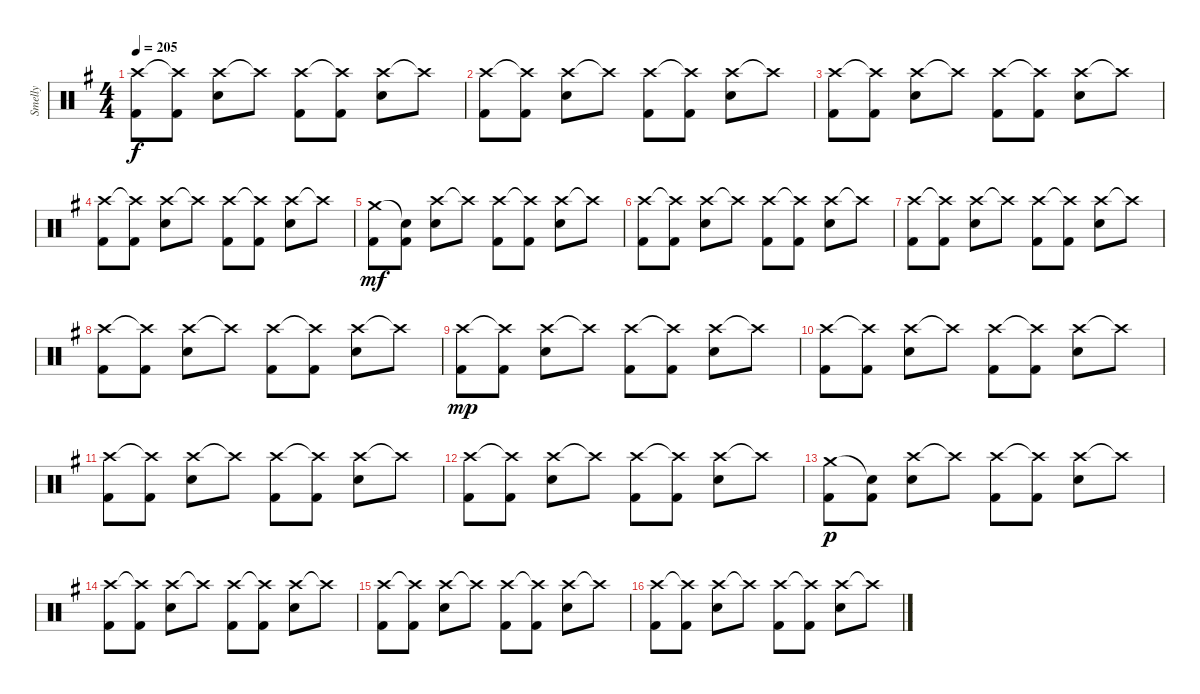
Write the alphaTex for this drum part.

\track ("Smelly" "Smelly") {instrument percussion}
\staff {score}
\articulation defaults
\ts (4 4)
\tempo 205
\clef neutral
\ks eminor
("Crash high (hit)" "Kick (hit) 2").8{dy f} ("Crash high (hit)"{t} "Kick (hit) 2").8 ("Crash high (hit)" "Electric Snare (hit)").8 "Crash high (hit)"{t}.8 ("Crash high (hit)" "Kick (hit) 2").8 ("Crash high (hit)"{t} "Kick (hit) 2").8 ("Crash high (hit)" "Electric Snare (hit)").8 "Crash high (hit)"{t}.8 |
("Crash high (hit)" "Kick (hit) 2").8 ("Crash high (hit)"{t} "Kick (hit) 2").8 ("Crash high (hit)" "Electric Snare (hit)").8 "Crash high (hit)"{t}.8 ("Crash high (hit)" "Kick (hit) 2").8 ("Crash high (hit)"{t} "Kick (hit) 2").8 ("Crash high (hit)" "Electric Snare (hit)").8 "Crash high (hit)"{t}.8 |
("Crash high (hit)" "Kick (hit) 2").8 ("Crash high (hit)"{t} "Kick (hit) 2").8 ("Crash high (hit)" "Electric Snare (hit)").8 "Crash high (hit)"{t}.8 ("Crash high (hit)" "Kick (hit) 2").8 ("Crash high (hit)"{t} "Kick (hit) 2").8 ("Crash high (hit)" "Electric Snare (hit)").8 "Crash high (hit)"{t}.8 |
("Crash high (hit)" "Kick (hit) 2").8 ("Crash high (hit)"{t} "Kick (hit) 2").8 ("Crash high (hit)" "Electric Snare (hit)").8 "Crash high (hit)"{t}.8 ("Crash high (hit)" "Kick (hit) 2").8 ("Crash high (hit)"{t} "Kick (hit) 2").8 ("Crash high (hit)" "Electric Snare (hit)").8 "Crash high (hit)"{t}.8 |
("Crash medium (hit)" "Kick (hit) 2").8{dy mf} ("Snare (hit)"{t} "Kick (hit) 2").8 ("Crash high (hit)" "Electric Snare (hit)").8 "Crash high (hit)"{t}.8 ("Crash high (hit)" "Kick (hit) 2").8 ("Crash high (hit)"{t} "Kick (hit) 2").8 ("Crash high (hit)" "Electric Snare (hit)").8 "Crash high (hit)"{t}.8 |
("Crash high (hit)" "Kick (hit) 2").8 ("Crash high (hit)"{t} "Kick (hit) 2").8 ("Crash high (hit)" "Electric Snare (hit)").8 "Crash high (hit)"{t}.8 ("Crash high (hit)" "Kick (hit) 2").8 ("Crash high (hit)"{t} "Kick (hit) 2").8 ("Crash high (hit)" "Electric Snare (hit)").8 "Crash high (hit)"{t}.8 |
("Crash high (hit)" "Kick (hit) 2").8 ("Crash high (hit)"{t} "Kick (hit) 2").8 ("Crash high (hit)" "Electric Snare (hit)").8 "Crash high (hit)"{t}.8 ("Crash high (hit)" "Kick (hit) 2").8 ("Crash high (hit)"{t} "Kick (hit) 2").8 ("Crash high (hit)" "Electric Snare (hit)").8 "Crash high (hit)"{t}.8 |
("Crash high (hit)" "Kick (hit) 2").8 ("Crash high (hit)"{t} "Kick (hit) 2").8 ("Crash high (hit)" "Electric Snare (hit)").8 "Crash high (hit)"{t}.8 ("Crash high (hit)" "Kick (hit) 2").8 ("Crash high (hit)"{t} "Kick (hit) 2").8 ("Crash high (hit)" "Electric Snare (hit)").8 "Crash high (hit)"{t}.8 |
("Crash high (hit)" "Kick (hit) 2").8{dy mp} ("Crash high (hit)"{t} "Kick (hit) 2").8 ("Crash high (hit)" "Electric Snare (hit)").8 "Crash high (hit)"{t}.8 ("Crash high (hit)" "Kick (hit) 2").8 ("Crash high (hit)"{t} "Kick (hit) 2").8 ("Crash high (hit)" "Electric Snare (hit)").8 "Crash high (hit)"{t}.8 |
("Crash high (hit)" "Kick (hit) 2").8 ("Crash high (hit)"{t} "Kick (hit) 2").8 ("Crash high (hit)" "Electric Snare (hit)").8 "Crash high (hit)"{t}.8 ("Crash high (hit)" "Kick (hit) 2").8 ("Crash high (hit)"{t} "Kick (hit) 2").8 ("Crash high (hit)" "Electric Snare (hit)").8 "Crash high (hit)"{t}.8 |
("Crash high (hit)" "Kick (hit) 2").8 ("Crash high (hit)"{t} "Kick (hit) 2").8 ("Crash high (hit)" "Electric Snare (hit)").8 "Crash high (hit)"{t}.8 ("Crash high (hit)" "Kick (hit) 2").8 ("Crash high (hit)"{t} "Kick (hit) 2").8 ("Crash high (hit)" "Electric Snare (hit)").8 "Crash high (hit)"{t}.8 |
("Crash high (hit)" "Kick (hit) 2").8 ("Crash high (hit)"{t} "Kick (hit) 2").8 ("Crash high (hit)" "Electric Snare (hit)").8 "Crash high (hit)"{t}.8 ("Crash high (hit)" "Kick (hit) 2").8 ("Crash high (hit)"{t} "Kick (hit) 2").8 ("Crash high (hit)" "Electric Snare (hit)").8 "Crash high (hit)"{t}.8 |
("Crash medium (hit)" "Kick (hit) 2").8{dy p} ("Snare (hit)"{t} "Kick (hit) 2").8 ("Crash high (hit)" "Electric Snare (hit)").8 "Crash high (hit)"{t}.8 ("Crash high (hit)" "Kick (hit) 2").8 ("Crash high (hit)"{t} "Kick (hit) 2").8 ("Crash high (hit)" "Electric Snare (hit)").8 "Crash high (hit)"{t}.8 |
("Crash high (hit)" "Kick (hit) 2").8 ("Crash high (hit)"{t} "Kick (hit) 2").8 ("Crash high (hit)" "Electric Snare (hit)").8 "Crash high (hit)"{t}.8 ("Crash high (hit)" "Kick (hit) 2").8 ("Crash high (hit)"{t} "Kick (hit) 2").8 ("Crash high (hit)" "Electric Snare (hit)").8 "Crash high (hit)"{t}.8 |
("Crash high (hit)" "Kick (hit) 2").8 ("Crash high (hit)"{t} "Kick (hit) 2").8 ("Crash high (hit)" "Electric Snare (hit)").8 "Crash high (hit)"{t}.8 ("Crash high (hit)" "Kick (hit) 2").8 ("Crash high (hit)"{t} "Kick (hit) 2").8 ("Crash high (hit)" "Electric Snare (hit)").8 "Crash high (hit)"{t}.8 |
("Crash high (hit)" "Kick (hit) 2").8 ("Crash high (hit)"{t} "Kick (hit) 2").8 ("Crash high (hit)" "Electric Snare (hit)").8 "Crash high (hit)"{t}.8 ("Crash high (hit)" "Kick (hit) 2").8 ("Crash high (hit)"{t} "Kick (hit) 2").8 ("Crash high (hit)" "Electric Snare (hit)").8 "Crash high (hit)"{t}.8
